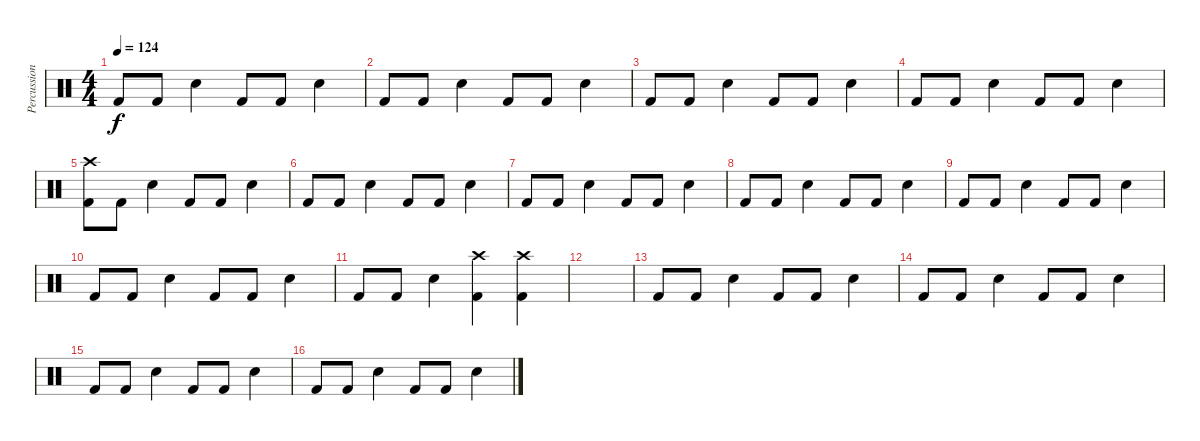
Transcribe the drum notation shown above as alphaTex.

\track ("Percussion" "Percussion") {instrument percussion}
\staff {score}
\articulation defaults
\ts (4 4)
\tempo 124
\clef neutral
\ks c "Kick (hit) 2".8{dy f} "Kick (hit) 2".8 "Snare (hit) 2".4 "Kick (hit) 2".8 "Kick (hit) 2".8 "Snare (hit) 2".4
|
"Kick (hit) 2".8 "Kick (hit) 2".8 "Snare (hit) 2".4 "Kick (hit) 2".8 "Kick (hit) 2".8 "Snare (hit) 2".4 |
"Kick (hit) 2".8 "Kick (hit) 2".8 "Snare (hit) 2".4 "Kick (hit) 2".8 "Kick (hit) 2".8 "Snare (hit) 2".4 |
"Kick (hit) 2".8 "Kick (hit) 2".8 "Snare (hit) 2".4 "Kick (hit) 2".8 "Kick (hit) 2".8 "Snare (hit) 2".4 |
("Crash high (hit)" "Kick (hit) 2").8 "Kick (hit) 2".8 "Snare (hit) 2".4 "Kick (hit) 2".8 "Kick (hit) 2".8 "Snare (hit) 2".4 |
"Kick (hit) 2".8 "Kick (hit) 2".8 "Snare (hit) 2".4 "Kick (hit) 2".8 "Kick (hit) 2".8 "Snare (hit) 2".4 |
"Kick (hit) 2".8 "Kick (hit) 2".8 "Snare (hit) 2".4 "Kick (hit) 2".8 "Kick (hit) 2".8 "Snare (hit) 2".4 |
"Kick (hit) 2".8 "Kick (hit) 2".8 "Snare (hit) 2".4 "Kick (hit) 2".8 "Kick (hit) 2".8 "Snare (hit) 2".4 |
"Kick (hit) 2".8 "Kick (hit) 2".8 "Snare (hit) 2".4 "Kick (hit) 2".8 "Kick (hit) 2".8 "Snare (hit) 2".4 |
"Kick (hit) 2".8 "Kick (hit) 2".8 "Snare (hit) 2".4 "Kick (hit) 2".8 "Kick (hit) 2".8 "Snare (hit) 2".4 |
"Kick (hit) 2".8 "Kick (hit) 2".8 "Snare (hit) 2".4 ("Crash high (hit)" "Kick (hit) 2").4 ("Crash high (hit)" "Kick (hit) 2").4 |
|
"Kick (hit) 2".8 "Kick (hit) 2".8 "Snare (hit) 2".4 "Kick (hit) 2".8 "Kick (hit) 2".8 "Snare (hit) 2".4 |
"Kick (hit) 2".8 "Kick (hit) 2".8 "Snare (hit) 2".4 "Kick (hit) 2".8 "Kick (hit) 2".8 "Snare (hit) 2".4 |
"Kick (hit) 2".8 "Kick (hit) 2".8 "Snare (hit) 2".4 "Kick (hit) 2".8 "Kick (hit) 2".8 "Snare (hit) 2".4 |
"Kick (hit) 2".8 "Kick (hit) 2".8 "Snare (hit) 2".4 "Kick (hit) 2".8 "Kick (hit) 2".8 "Snare (hit) 2".4
